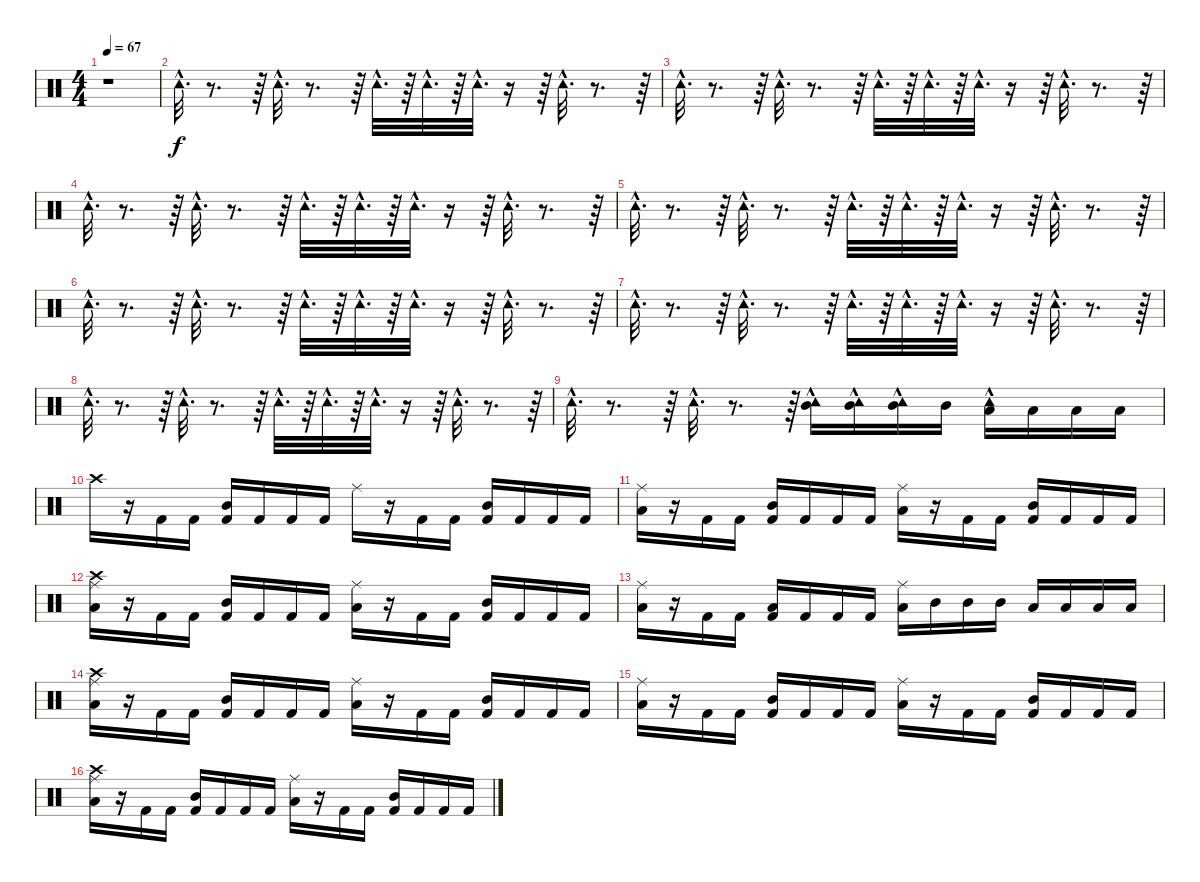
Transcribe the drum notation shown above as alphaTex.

\track "" {instrument percussion}
\staff {score}
\articulation defaults
\ts (4 4)
\tempo 67
\clef neutral
\ks c
r.1{dy f} |
"Tambourine (hit)"{hac}.32{d} r.8{d} r.64 "Tambourine (hit)"{hac}.32{d} r.8{d} r.64 "Tambourine (hit)"{hac}.32{d} r.64 "Tambourine (hit)"{hac}.32{d} r.64 "Tambourine (hit)"{hac}.32{d} r.16 r.64 "Tambourine (hit)"{hac}.32{d} r.8{d} r.64 |
"Tambourine (hit)"{hac}.32{d} r.8{d} r.64 "Tambourine (hit)"{hac}.32{d} r.8{d} r.64 "Tambourine (hit)"{hac}.32{d} r.64 "Tambourine (hit)"{hac}.32{d} r.64 "Tambourine (hit)"{hac}.32{d} r.16 r.64 "Tambourine (hit)"{hac}.32{d} r.8{d} r.64 |
"Tambourine (hit)"{hac}.32{d} r.8{d} r.64 "Tambourine (hit)"{hac}.32{d} r.8{d} r.64 "Tambourine (hit)"{hac}.32{d} r.64 "Tambourine (hit)"{hac}.32{d} r.64 "Tambourine (hit)"{hac}.32{d} r.16 r.64 "Tambourine (hit)"{hac}.32{d} r.8{d} r.64 |
"Tambourine (hit)"{hac}.32{d} r.8{d} r.64 "Tambourine (hit)"{hac}.32{d} r.8{d} r.64 "Tambourine (hit)"{hac}.32{d} r.64 "Tambourine (hit)"{hac}.32{d} r.64 "Tambourine (hit)"{hac}.32{d} r.16 r.64 "Tambourine (hit)"{hac}.32{d} r.8{d} r.64 |
"Tambourine (hit)"{hac}.32{d} r.8{d} r.64 "Tambourine (hit)"{hac}.32{d} r.8{d} r.64 "Tambourine (hit)"{hac}.32{d} r.64 "Tambourine (hit)"{hac}.32{d} r.64 "Tambourine (hit)"{hac}.32{d} r.16 r.64 "Tambourine (hit)"{hac}.32{d} r.8{d} r.64 |
"Tambourine (hit)"{hac}.32{d} r.8{d} r.64 "Tambourine (hit)"{hac}.32{d} r.8{d} r.64 "Tambourine (hit)"{hac}.32{d} r.64 "Tambourine (hit)"{hac}.32{d} r.64 "Tambourine (hit)"{hac}.32{d} r.16 r.64 "Tambourine (hit)"{hac}.32{d} r.8{d} r.64 |
"Tambourine (hit)"{hac}.32{d} r.8{d} r.64 "Tambourine (hit)"{hac}.32{d} r.8{d} r.64 "Tambourine (hit)"{hac}.32{d} r.64 "Tambourine (hit)"{hac}.32{d} r.64 "Tambourine (hit)"{hac}.32{d} r.16 r.64 "Tambourine (hit)"{hac}.32{d} r.8{d} r.64 |
"Tambourine (hit)"{hac}.32{d} r.8{d} r.64 "Tambourine (hit)"{hac}.32{d} r.8{d} r.64 ("Mid Tom (hit)" "Tambourine (hit)"{hac}).16 ("Mid Tom (hit)" "Tambourine (hit)"{hac}).16 ("Mid Tom (hit)" "Tambourine (hit)"{hac}).16 "Mid Tom (hit)".16 ("Low Tom (hit)" "Tambourine (hit)"{hac}).16 "Low Tom (hit)".16 "Low Tom (hit)".16 "Low Tom (hit)".16 |
"Crash high (hit)".16 r.16 "Kick (hit) 2".16 "Kick (hit) 2".16 ("Mid Tom (hit)" "Kick (hit) 2").16 "Kick (hit) 2".16 "Kick (hit) 2".16 "Kick (hit) 2".16 "Ride (middle)".16 r.16 "Kick (hit) 2".16 "Kick (hit) 2".16 ("Mid Tom (hit)" "Kick (hit) 2").16 "Kick (hit) 2".16 "Kick (hit) 2".16 "Kick (hit) 2".16 |
("Low Floor Tom (hit)" "Ride (middle)").16 r.16 "Kick (hit) 2".16 "Kick (hit) 2".16 ("Mid Tom (hit)" "Kick (hit) 2").16 "Kick (hit) 2".16 "Kick (hit) 2".16 "Kick (hit) 2".16 ("Low Floor Tom (hit)" "Ride (middle)").16 r.16 "Kick (hit) 2".16 "Kick (hit) 2".16 ("Mid Tom (hit)" "Kick (hit) 2").16 "Kick (hit) 2".16 "Kick (hit) 2".16 "Kick (hit) 2".16 |
("Low Floor Tom (hit)" "Crash high (hit)" "Ride (middle)").16 r.16 "Kick (hit) 2".16 "Kick (hit) 2".16 ("Mid Tom (hit)" "Kick (hit) 2").16 "Kick (hit) 2".16 "Kick (hit) 2".16 "Kick (hit) 2".16 ("Low Floor Tom (hit)" "Ride (middle)").16 r.16 "Kick (hit) 2".16 "Kick (hit) 2".16 ("Mid Tom (hit)" "Kick (hit) 2").16 "Kick (hit) 2".16 "Kick (hit) 2".16 "Kick (hit) 2".16 |
("Low Floor Tom (hit)" "Ride (middle)").16 r.16 "Kick (hit) 2".16 "Kick (hit) 2".16 ("Kick (hit) 2" "Low Tom (hit)").16 "Kick (hit) 2".16 "Kick (hit) 2".16 "Kick (hit) 2".16 ("Low Floor Tom (hit)" "Ride (middle)").16 "Mid Tom (hit)".16 "Mid Tom (hit)".16 "Mid Tom (hit)".16 "Low Floor Tom (hit)".16 "Low Tom (hit)".16 "Low Tom (hit)".16 "Low Tom (hit)".16 |
("Low Floor Tom (hit)" "Crash high (hit)" "Ride (middle)").16 r.16 "Kick (hit) 2".16 "Kick (hit) 2".16 ("Mid Tom (hit)" "Kick (hit) 2").16 "Kick (hit) 2".16 "Kick (hit) 2".16 "Kick (hit) 2".16 ("Low Floor Tom (hit)" "Ride (middle)").16 r.16 "Kick (hit) 2".16 "Kick (hit) 2".16 ("Mid Tom (hit)" "Kick (hit) 2").16 "Kick (hit) 2".16 "Kick (hit) 2".16 "Kick (hit) 2".16 |
("Low Floor Tom (hit)" "Ride (middle)").16 r.16 "Kick (hit) 2".16 "Kick (hit) 2".16 ("Mid Tom (hit)" "Kick (hit) 2").16 "Kick (hit) 2".16 "Kick (hit) 2".16 "Kick (hit) 2".16 ("Low Floor Tom (hit)" "Ride (middle)").16 r.16 "Kick (hit) 2".16 "Kick (hit) 2".16 ("Mid Tom (hit)" "Kick (hit) 2").16 "Kick (hit) 2".16 "Kick (hit) 2".16 "Kick (hit) 2".16 |
("Crash high (hit)" "Low Floor Tom (hit)" "Ride (middle)").16 r.16 "Kick (hit) 2".16 "Kick (hit) 2".16 ("Mid Tom (hit)" "Kick (hit) 2").16 "Kick (hit) 2".16 "Kick (hit) 2".16 "Kick (hit) 2".16 ("Low Floor Tom (hit)" "Ride (middle)").16 r.16 "Kick (hit) 2".16 "Kick (hit) 2".16 ("Mid Tom (hit)" "Kick (hit) 2").16 "Kick (hit) 2".16 "Kick (hit) 2".16 "Kick (hit) 2".16
